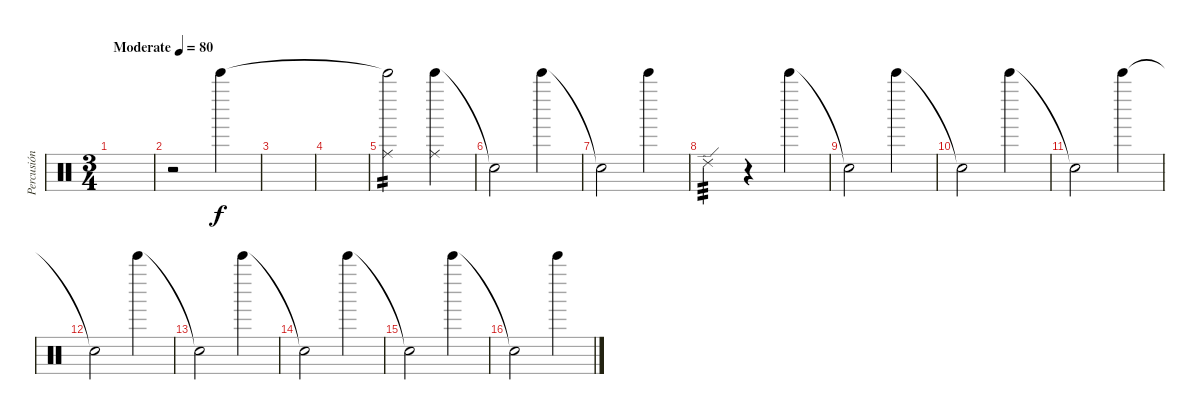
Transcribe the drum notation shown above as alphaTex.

\track ("Percusión" "Percusión") {instrument percussion}
\staff {score}
\articulation defaults
\ts (3 4)
\tempo (80 "Moderate")
\clef neutral
\ks c
|
r.2 "Bell Tree (hit)".4 |
|
|
("Bell Tree (hit)"{t} "Ride (middle)").2{tp 2} ("Bell Tree (hit)" "Ride (middle)").4 |
"Snare (hit)"{t}.2 "Bell Tree (hit)".4 |
"Snare (hit)"{t}.2 "Bell Tree (hit)".4 |
"Ride (edge) 2".4{tp 3} r.4 "Bell Tree (hit)".4 |
"Snare (hit)"{t}.2 "Bell Tree (hit)".4 |
"Snare (hit)"{t}.2 "Bell Tree (hit)".4 |
"Snare (hit)"{t}.2 "Bell Tree (hit)".4 |
"Snare (hit)"{t}.2 "Bell Tree (hit)".4 |
"Snare (hit)"{t}.2 "Bell Tree (hit)".4 |
"Snare (hit)"{t}.2 "Bell Tree (hit)".4 |
"Snare (hit)"{t}.2 "Bell Tree (hit)".4 |
"Snare (hit)"{t}.2 "Bell Tree (hit)".4
